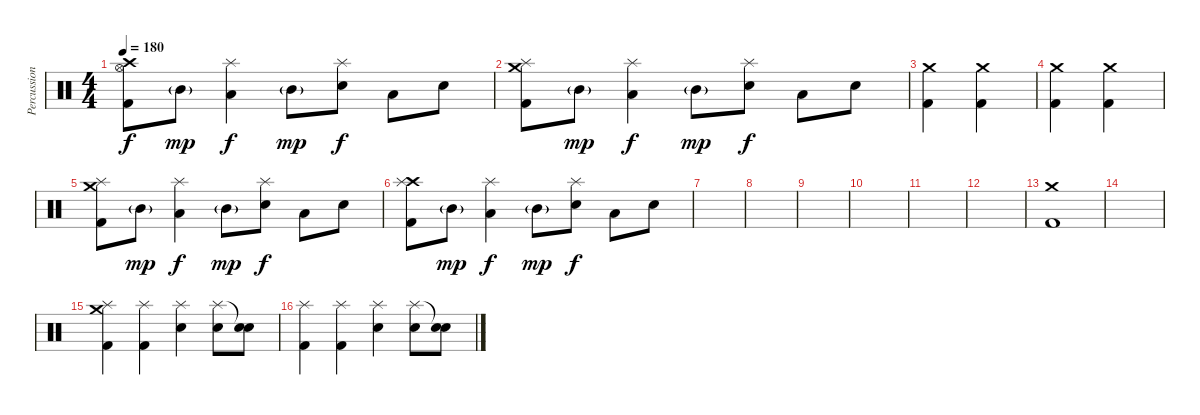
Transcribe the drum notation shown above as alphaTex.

\track ("Percussion" "Percussion") {instrument percussion}
\staff {score}
\articulation defaults
\ts (4 4)
\tempo 180
\clef neutral
\ks c
("Crash high (hit)" "Hi-Hat (open)" "Kick (hit) 2").8{dy f} "Mid Tom (hit)"{g}.8{dy mp} ("Splash (hit)" "Low Tom (hit)").4{dy f} "Mid Tom (hit)"{g}.8{dy mp} ("Splash (hit)" "Electric Snare (hit)").8{dy f} "Low Tom (hit)".8 "Snare (hit)".8 |
("Crash medium (hit)" "Splash (hit)" "Kick (hit) 2").8 "Mid Tom (hit)"{g}.8{dy mp} ("Splash (hit)" "Low Tom (hit)").4{dy f} "Mid Tom (hit)"{g}.8{dy mp} ("Splash (hit)" "Electric Snare (hit)").8{dy f} "Low Tom (hit)".8 "Snare (hit)".8 |
("Crash medium (hit)" "Kick (hit) 2").4 ("Crash medium (hit)" "Kick (hit) 2").4 |
("Crash medium (hit)" "Kick (hit) 2").4 ("Crash medium (hit)" "Kick (hit) 2").4 |
("Crash medium (hit)" "Splash (hit)" "Kick (hit) 2").8 "Mid Tom (hit)"{g}.8{dy mp} ("Splash (hit)" "Low Tom (hit)").4{dy f} "Mid Tom (hit)"{g}.8{dy mp} ("Splash (hit)" "Electric Snare (hit)").8{dy f} "Low Tom (hit)".8 "Snare (hit)".8 |
("Crash high (hit)" "Splash (hit)" "Kick (hit) 2").8 "Mid Tom (hit)"{g}.8{dy mp} ("Splash (hit)" "Low Tom (hit)").4{dy f} "Mid Tom (hit)"{g}.8{dy mp} ("Splash (hit)" "Electric Snare (hit)").8{dy f} "Low Tom (hit)".8 "Snare (hit)".8 |
|
|
|
|
|
|
("Crash medium (hit)" "Kick (hit) 2").1 |
|
("Crash medium (hit)" "Splash (hit)" "Kick (hit) 2").4 ("Splash (hit)" "Kick (hit) 2").4 ("Splash (hit)" "Electric Snare (hit)").4 ("Splash (hit)" "Snare (hit)").8 ("Snare (hit)"{t} "Electric Snare (hit)").8 |
("Splash (hit)" "Kick (hit) 2").4 ("Splash (hit)" "Kick (hit) 2").4 ("Splash (hit)" "Electric Snare (hit)").4 ("Splash (hit)" "Snare (hit)").8 ("Snare (hit)"{t} "Electric Snare (hit)").8
